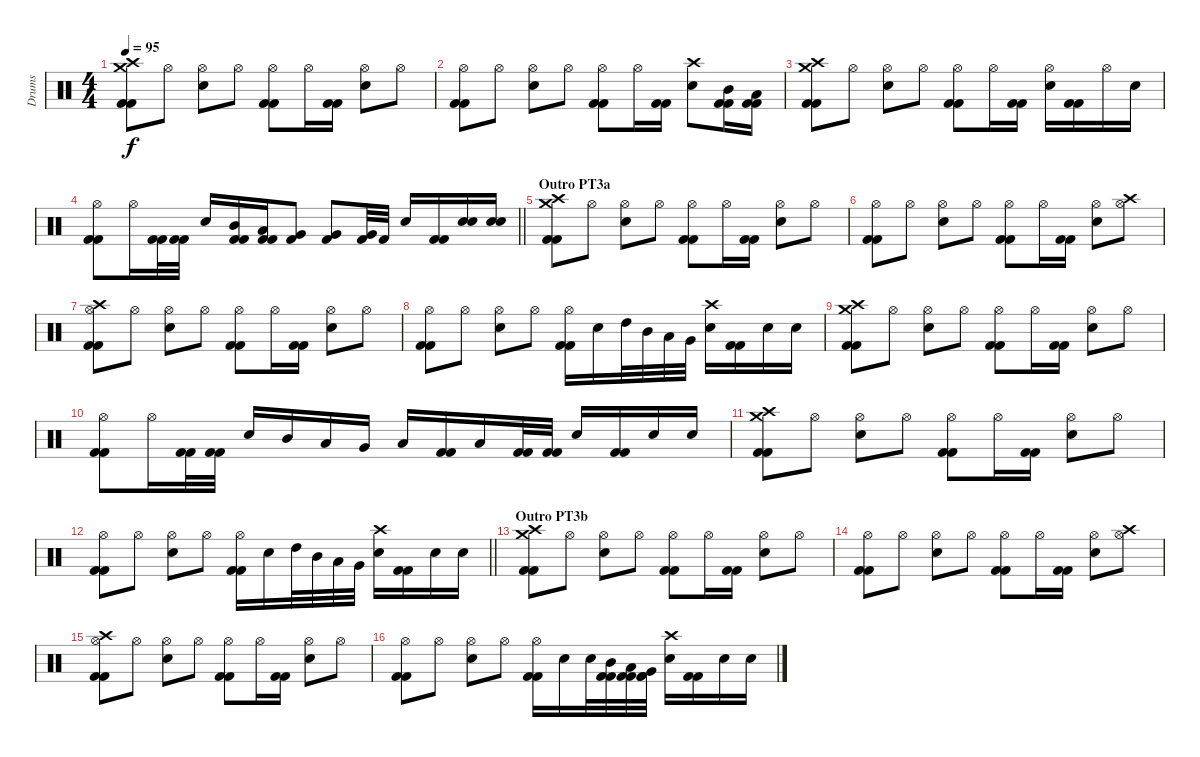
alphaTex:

\track ("Drums" "Drums") {instrument percussion}
\staff {score}
\articulation defaults
\ts (4 4)
\tempo 95
\clef neutral
\ks c
("Crash medium (hit)" "Crash high (hit)" "Kick (hit) 2" "Kick (hit) 2").8{dy f} "Hi-Hat (open)".8 ("Hi-Hat (open)" "Electric Snare (hit)").8 "Hi-Hat (open)".8 ("Hi-Hat (open)" "Kick (hit) 2" "Kick (hit) 2").8 "Hi-Hat (open)".16 ("Kick (hit) 2" "Kick (hit) 2").16 ("Hi-Hat (open)" "Electric Snare (hit)").8 "Hi-Hat (open)".8 |
("Hi-Hat (open)" "Kick (hit) 2" "Kick (hit) 2").8 "Hi-Hat (open)".8 ("Hi-Hat (open)" "Electric Snare (hit)").8 "Hi-Hat (open)".8 ("Hi-Hat (open)" "Kick (hit) 2" "Kick (hit) 2").8 "Hi-Hat (open)".16 ("Kick (hit) 2" "Kick (hit) 2").16 ("Crash high (hit)" "Electric Snare (hit)").8 ("Mid Tom (hit)" "Kick (hit) 2" "Kick (hit) 2").16 ("Low Tom (hit)" "Kick (hit) 2" "Kick (hit) 2").16 |
("Crash medium (hit)" "Crash high (hit)" "Kick (hit) 2" "Kick (hit) 2").8 "Hi-Hat (open)".8 ("Hi-Hat (open)" "Electric Snare (hit)").8 "Hi-Hat (open)".8 ("Hi-Hat (open)" "Kick (hit) 2" "Kick (hit) 2").8 "Hi-Hat (open)".16 ("Kick (hit) 2" "Kick (hit) 2").16 ("Hi-Hat (open)" "Electric Snare (hit)").16 ("Kick (hit) 2" "Kick (hit) 2").16 "Hi-Hat (open)".16 "Electric Snare (hit)".16 |
\barLineRight lightlight
("Hi-Hat (open)" "Kick (hit) 2" "Kick (hit) 2").8 "Hi-Hat (open)".16 ("Kick (hit) 2" "Kick (hit) 2").32 ("Kick (hit) 2" "Kick (hit) 2").32 "Electric Snare (hit)".16 ("Mid Tom (hit)" "Kick (hit) 2" "Kick (hit) 2").16 ("Low Tom (hit)" "Kick (hit) 2" "Kick (hit) 2").16 ("Very Low Tom (hit)" "Kick (hit) 2").8 ("Very Low Tom (hit)" "Kick (hit) 2").8 ("Very Low Tom (hit)" "Kick (hit) 2").32 "Kick (hit) 2".32 "Electric Snare (hit)".16 ("Kick (hit) 2" "Kick (hit) 2").16 ("Electric Snare (hit)" "Electric Snare (hit)").16 ("Electric Snare (hit)" "Electric Snare (hit)").16 |
\section ("" "Outro PT3a")
("Crash medium (hit)" "Crash high (hit)" "Kick (hit) 2" "Kick (hit) 2").8 "Hi-Hat (open)".8 ("Hi-Hat (open)" "Electric Snare (hit)").8 "Hi-Hat (open)".8 ("Hi-Hat (open)" "Kick (hit) 2" "Kick (hit) 2").8 "Hi-Hat (open)".16 ("Kick (hit) 2" "Kick (hit) 2").16 ("Hi-Hat (open)" "Electric Snare (hit)").8 "Hi-Hat (open)".8 |
("Hi-Hat (open)" "Kick (hit) 2" "Kick (hit) 2").8 "Hi-Hat (open)".8 ("Hi-Hat (open)" "Electric Snare (hit)").8 "Hi-Hat (open)".8 ("Hi-Hat (open)" "Kick (hit) 2" "Kick (hit) 2").8 "Hi-Hat (open)".16 ("Kick (hit) 2" "Kick (hit) 2").16 ("Hi-Hat (open)" "Electric Snare (hit)").8 ("Crash high (hit)" "Hi-Hat (open)").8 |
("Crash high (hit)" "Hi-Hat (open)" "Kick (hit) 2" "Kick (hit) 2").8 "Hi-Hat (open)".8 ("Hi-Hat (open)" "Electric Snare (hit)").8 "Hi-Hat (open)".8 ("Hi-Hat (open)" "Kick (hit) 2" "Kick (hit) 2").8 "Hi-Hat (open)".16 ("Kick (hit) 2" "Kick (hit) 2").16 ("Hi-Hat (open)" "Electric Snare (hit)").8 "Hi-Hat (open)".8 |
("Hi-Hat (open)" "Kick (hit) 2" "Kick (hit) 2").8 "Hi-Hat (open)".8 ("Hi-Hat (open)" "Electric Snare (hit)").8 "Hi-Hat (open)".8 ("Hi-Hat (open)" "Kick (hit) 2" "Kick (hit) 2").16 "Electric Snare (hit)".16 "High Tom (hit)".32 "Mid Tom (hit)".32 "Low Tom (hit)".32 "Very Low Tom (hit)".32 ("Crash high (hit)" "Electric Snare (hit)").16 ("Kick (hit) 2" "Kick (hit) 2").16 "Electric Snare (hit)".16 "Electric Snare (hit)".16 |
("Crash medium (hit)" "Crash high (hit)" "Kick (hit) 2" "Kick (hit) 2").8 "Hi-Hat (open)".8 ("Hi-Hat (open)" "Electric Snare (hit)").8 "Hi-Hat (open)".8 ("Hi-Hat (open)" "Kick (hit) 2" "Kick (hit) 2").8 "Hi-Hat (open)".16 ("Kick (hit) 2" "Kick (hit) 2").16 ("Hi-Hat (open)" "Electric Snare (hit)").8 "Hi-Hat (open)".8 |
("Hi-Hat (open)" "Kick (hit) 2" "Kick (hit) 2").8 "Hi-Hat (open)".16 ("Kick (hit) 2" "Kick (hit) 2").32 ("Kick (hit) 2" "Kick (hit) 2").32 "Electric Snare (hit)".16 "Mid Tom (hit)".16 "Low Tom (hit)".16 "Very Low Tom (hit)".16 "Low Floor Tom (hit)".16 ("Kick (hit) 2" "Kick (hit) 2").16 "Low Floor Tom (hit)".16 ("Kick (hit) 2" "Kick (hit) 2").32 ("Kick (hit) 2" "Kick (hit) 2").32 "Electric Snare (hit)".16 ("Kick (hit) 2" "Kick (hit) 2").16 "Electric Snare (hit)".16 "Electric Snare (hit)".16 |
("Crash medium (hit)" "Crash high (hit)" "Kick (hit) 2" "Kick (hit) 2").8 "Hi-Hat (open)".8 ("Hi-Hat (open)" "Electric Snare (hit)").8 "Hi-Hat (open)".8 ("Hi-Hat (open)" "Kick (hit) 2" "Kick (hit) 2").8 "Hi-Hat (open)".16 ("Kick (hit) 2" "Kick (hit) 2").16 ("Hi-Hat (open)" "Electric Snare (hit)").8 "Hi-Hat (open)".8 |
\barLineRight lightlight
("Hi-Hat (open)" "Kick (hit) 2" "Kick (hit) 2").8 "Hi-Hat (open)".8 ("Hi-Hat (open)" "Electric Snare (hit)").8 "Hi-Hat (open)".8 ("Hi-Hat (open)" "Kick (hit) 2" "Kick (hit) 2").16 "Electric Snare (hit)".16 "High Tom (hit)".32 "Mid Tom (hit)".32 "Low Tom (hit)".32 "Very Low Tom (hit)".32 ("Crash high (hit)" "Electric Snare (hit)").16 ("Kick (hit) 2" "Kick (hit) 2").16 "Electric Snare (hit)".16 "Electric Snare (hit)".16 |
\section ("" "Outro PT3b")
("Crash medium (hit)" "Crash high (hit)" "Kick (hit) 2" "Kick (hit) 2").8 "Hi-Hat (open)".8 ("Hi-Hat (open)" "Electric Snare (hit)").8 "Hi-Hat (open)".8 ("Hi-Hat (open)" "Kick (hit) 2" "Kick (hit) 2").8 "Hi-Hat (open)".16 ("Kick (hit) 2" "Kick (hit) 2").16 ("Hi-Hat (open)" "Electric Snare (hit)").8 "Hi-Hat (open)".8 |
("Hi-Hat (open)" "Kick (hit) 2" "Kick (hit) 2").8 "Hi-Hat (open)".8 ("Hi-Hat (open)" "Electric Snare (hit)").8 "Hi-Hat (open)".8 ("Hi-Hat (open)" "Kick (hit) 2" "Kick (hit) 2").8 "Hi-Hat (open)".16 ("Kick (hit) 2" "Kick (hit) 2").16 ("Hi-Hat (open)" "Electric Snare (hit)").8 ("Crash high (hit)" "Hi-Hat (open)").8 |
("Crash high (hit)" "Hi-Hat (open)" "Kick (hit) 2" "Kick (hit) 2").8 "Hi-Hat (open)".8 ("Hi-Hat (open)" "Electric Snare (hit)").8 "Hi-Hat (open)".8 ("Hi-Hat (open)" "Kick (hit) 2" "Kick (hit) 2").8 "Hi-Hat (open)".16 ("Kick (hit) 2" "Kick (hit) 2").16 ("Hi-Hat (open)" "Electric Snare (hit)").8 "Hi-Hat (open)".8 |
("Hi-Hat (open)" "Kick (hit) 2" "Kick (hit) 2").8 "Hi-Hat (open)".8 ("Hi-Hat (open)" "Electric Snare (hit)").8 "Hi-Hat (open)".8 ("Hi-Hat (open)" "Kick (hit) 2" "Kick (hit) 2").16 "Electric Snare (hit)".16 "Electric Snare (hit)".32 ("Mid Tom (hit)" "Kick (hit) 2" "Kick (hit) 2").32 ("Low Tom (hit)" "Kick (hit) 2" "Kick (hit) 2").32 ("Very Low Tom (hit)" "Kick (hit) 2" "Kick (hit) 2").32 ("Crash high (hit)" "Electric Snare (hit)").16 ("Kick (hit) 2" "Kick (hit) 2").16 "Electric Snare (hit)".16 "Electric Snare (hit)".16
